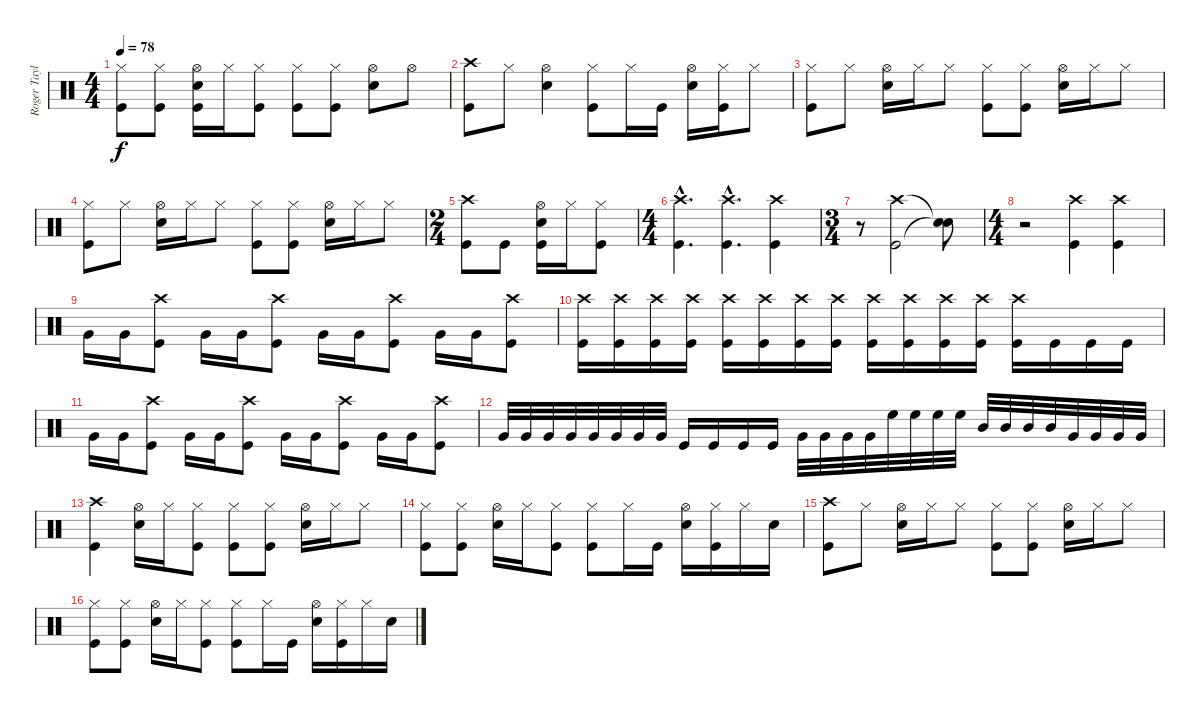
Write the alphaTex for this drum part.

\track ("Roger Taylor - Drums" "Roger Tayl") {instrument percussion}
\staff {score}
\articulation defaults
\ts (4 4)
\tempo 78
\clef neutral
\ks c
("Hi-Hat (closed)" "Kick (hit)").8{dy f} ("Hi-Hat (closed)" "Kick (hit)").8 ("Hi-Hat (open)" "Kick (hit)" "Electric Snare (hit)").16 "Hi-Hat (closed)".16 ("Hi-Hat (closed)" "Kick (hit)").8 ("Hi-Hat (closed)" "Kick (hit)").8 ("Hi-Hat (closed)" "Kick (hit)").8 ("Hi-Hat (open)" "Electric Snare (hit)").8 "Hi-Hat (open)".8 |
("Kick (hit)" "Crash high (hit)").8 "Hi-Hat (closed)".8 ("Electric Snare (hit)" "Hi-Hat (open)").4 ("Hi-Hat (closed)" "Kick (hit)").8 "Hi-Hat (closed)".16 "Kick (hit)".16 ("Hi-Hat (open)" "Electric Snare (hit)").16 ("Hi-Hat (closed)" "Kick (hit)").16 "Hi-Hat (closed)".8 |
("Hi-Hat (closed)" "Kick (hit)").8 "Hi-Hat (closed)".8 ("Hi-Hat (open)" "Electric Snare (hit)").16 "Hi-Hat (closed)".16 "Hi-Hat (closed)".8 ("Hi-Hat (closed)" "Kick (hit)").8 ("Hi-Hat (closed)" "Kick (hit)").8 ("Hi-Hat (open)" "Electric Snare (hit)").16 "Hi-Hat (closed)".16 "Hi-Hat (closed)".8 |
("Hi-Hat (closed)" "Kick (hit)").8 "Hi-Hat (closed)".8 ("Hi-Hat (open)" "Electric Snare (hit)").16 "Hi-Hat (closed)".16 "Hi-Hat (closed)".8 ("Hi-Hat (closed)" "Kick (hit)").8 ("Hi-Hat (closed)" "Kick (hit)").8 ("Hi-Hat (open)" "Electric Snare (hit)").16 "Hi-Hat (closed)".16 "Hi-Hat (closed)".8 |
\ts (2 4)
("Crash high (hit)" "Kick (hit)").8 "Kick (hit)".8 ("Kick (hit)" "Hi-Hat (open)" "Electric Snare (hit)").16 "Hi-Hat (closed)".16 ("Hi-Hat (closed)" "Kick (hit)").8 |
\ts (4 4)
("Crash high (hit)"{hac} "Kick (hit)"{hac}).4{d} ("Crash high (hit)"{hac} "Kick (hit)"{hac}).4{d} ("Crash high (hit)" "Kick (hit)").4 |
\ts (3 4)
r.8 ("Crash high (hit)" "Kick (hit)").2 ("Snare (hit)"{t} "Snare (hit)"{t}).8 |
\ts (4 4)
r.2 ("Crash high (hit)" "Kick (hit)").4 ("Crash high (hit)" "Kick (hit)").4 |
"Very Low Tom (hit)".16 "Very Low Tom (hit)".16 ("Crash high (hit)" "Kick (hit)").8 "Very Low Tom (hit)".16 "Very Low Tom (hit)".16 ("Crash high (hit)" "Kick (hit)").8 "Very Low Tom (hit)".16 "Very Low Tom (hit)".16 ("Crash high (hit)" "Kick (hit)").8 "Very Low Tom (hit)".16 "Very Low Tom (hit)".16 ("Crash high (hit)" "Kick (hit)").8 |
("Crash high (hit)" "Kick (hit)").16 ("Crash high (hit)" "Kick (hit)").16 ("Crash high (hit)" "Kick (hit)").16 ("Crash high (hit)" "Kick (hit)").16 ("Crash high (hit)" "Kick (hit)").16 ("Crash high (hit)" "Kick (hit)").16 ("Crash high (hit)" "Kick (hit)").16 ("Crash high (hit)" "Kick (hit)").16 ("Crash high (hit)" "Kick (hit)").16 ("Crash high (hit)" "Kick (hit)").16 ("Crash high (hit)" "Kick (hit)").16 ("Crash high (hit)" "Kick (hit)").16 ("Crash high (hit)" "Kick (hit)").16 "Kick (hit)".16 "Kick (hit)".16 "Kick (hit)".16 |
"Very Low Tom (hit)".16 "Very Low Tom (hit)".16 ("Crash high (hit)" "Kick (hit)").8 "Very Low Tom (hit)".16 "Very Low Tom (hit)".16 ("Crash high (hit)" "Kick (hit)").8 "Very Low Tom (hit)".16 "Very Low Tom (hit)".16 ("Crash high (hit)" "Kick (hit)").8 "Very Low Tom (hit)".16 "Very Low Tom (hit)".16 ("Crash high (hit)" "Kick (hit)").8 |
"Very Low Tom (hit)".32 "Very Low Tom (hit)".32 "Very Low Tom (hit)".32 "Very Low Tom (hit)".32 "Very Low Tom (hit)".32 "Very Low Tom (hit)".32 "Very Low Tom (hit)".32 "Very Low Tom (hit)".32 "Kick (hit)".16 "Kick (hit)".16 "Kick (hit)".16 "Kick (hit)".16 "Very Low Tom (hit)".32 "Very Low Tom (hit)".32 "Very Low Tom (hit)".32 "Very Low Tom (hit)".32 "High Floor Tom (hit)".32 "High Floor Tom (hit)".32 "High Floor Tom (hit)".32 "High Floor Tom (hit)".32 "Mid Tom (hit)".32 "Mid Tom (hit)".32 "Mid Tom (hit)".32 "Mid Tom (hit)".32 "Very Low Tom (hit)".32 "Very Low Tom (hit)".32 "Very Low Tom (hit)".32 "Very Low Tom (hit)".32 |
("Kick (hit)" "Crash high (hit)").4 ("Hi-Hat (open)" "Electric Snare (hit)").16 "Hi-Hat (closed)".16 ("Hi-Hat (closed)" "Kick (hit)").8 ("Hi-Hat (closed)" "Kick (hit)").8 ("Hi-Hat (closed)" "Kick (hit)").8 ("Hi-Hat (open)" "Electric Snare (hit)").16 "Hi-Hat (closed)".16 "Hi-Hat (closed)".8 |
("Hi-Hat (closed)" "Kick (hit)").8 ("Hi-Hat (closed)" "Kick (hit)").8 ("Hi-Hat (open)" "Electric Snare (hit)").16 "Hi-Hat (closed)".16 ("Hi-Hat (closed)" "Kick (hit)").8 ("Hi-Hat (closed)" "Kick (hit)").8 "Hi-Hat (closed)".16 "Kick (hit)".16 ("Electric Snare (hit)" "Hi-Hat (open)").16 ("Hi-Hat (closed)" "Kick (hit)").16 "Hi-Hat (closed)".16 "Electric Snare (hit)".16 |
("Kick (hit)" "Crash high (hit)").8 "Hi-Hat (closed)".8 ("Electric Snare (hit)" "Hi-Hat (open)").16 "Hi-Hat (closed)".16 "Hi-Hat (closed)".8 ("Hi-Hat (closed)" "Kick (hit)").8 ("Hi-Hat (closed)" "Kick (hit)").8 ("Electric Snare (hit)" "Hi-Hat (open)").16 "Hi-Hat (closed)".16 "Hi-Hat (closed)".8 |
("Hi-Hat (closed)" "Kick (hit)").8 ("Hi-Hat (closed)" "Kick (hit)").8 ("Hi-Hat (open)" "Electric Snare (hit)").16 "Hi-Hat (closed)".16 ("Hi-Hat (closed)" "Kick (hit)").8 ("Hi-Hat (closed)" "Kick (hit)").8 "Hi-Hat (closed)".16 "Kick (hit)".16 ("Electric Snare (hit)" "Hi-Hat (open)").16 ("Hi-Hat (closed)" "Kick (hit)").16 "Hi-Hat (closed)".16 "Electric Snare (hit)".16
